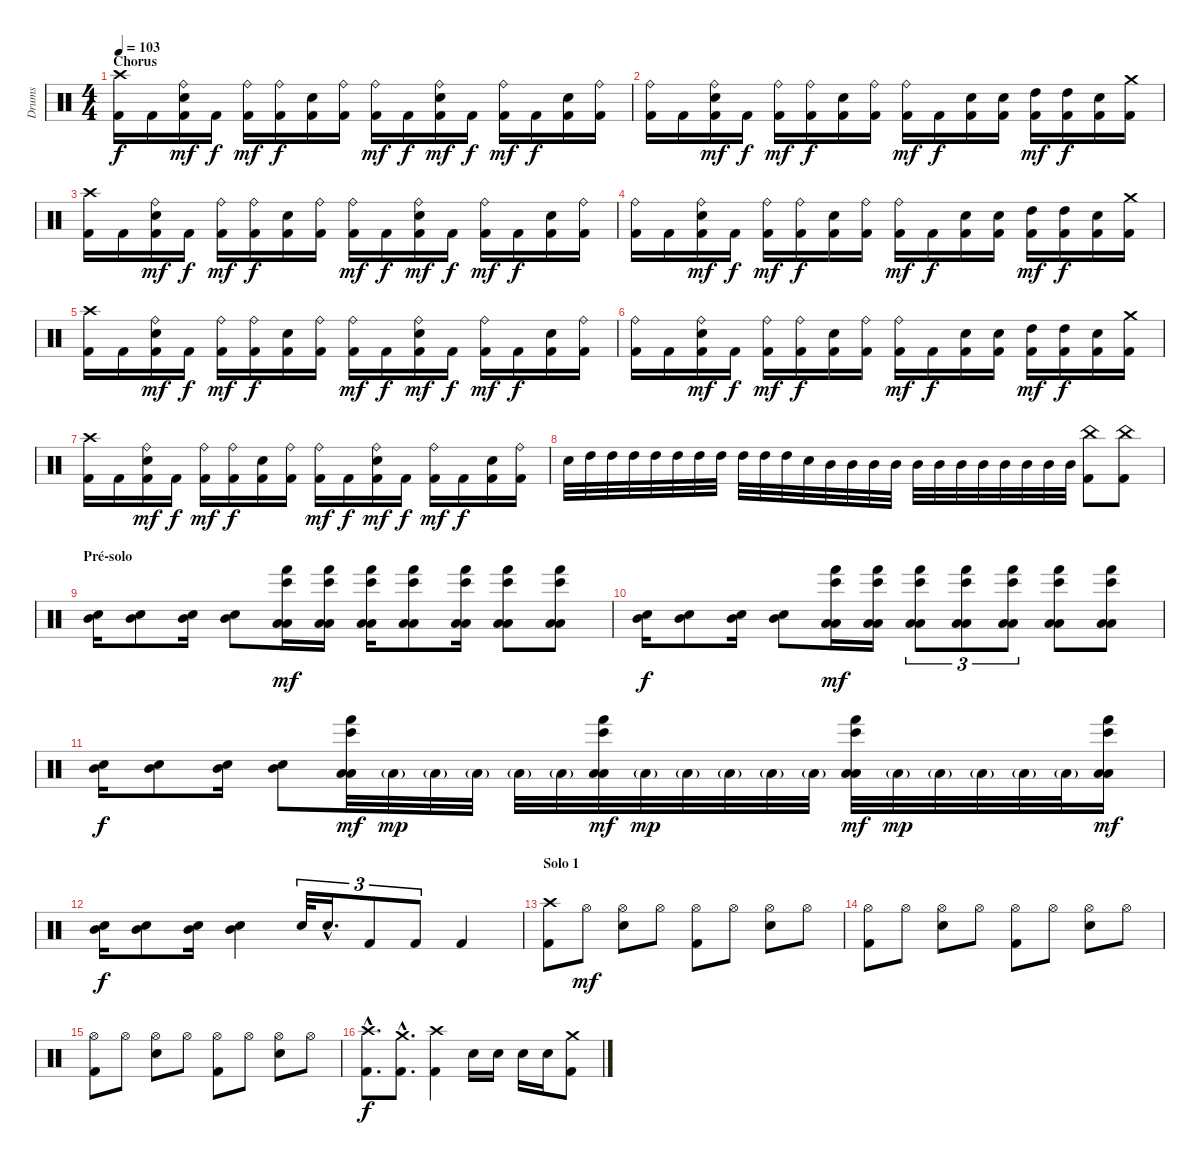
\track ("Drums" "Drums") {instrument percussion}
\staff {score}
\articulation defaults
\ts (4 4)
\section ("" "Chorus")
\tempo 103
\clef neutral
\ks c
("Crash high (hit)" "Kick (hit) 2").16{dy f} "Kick (hit) 2".16 ("Ride (bell)" "Electric Snare (hit)" "Kick (hit) 2").16{dy mf} "Kick (hit) 2".16{dy f} ("Ride (bell)" "Kick (hit) 2").16{dy mf} ("Ride (bell)" "Kick (hit) 2").16{dy f} ("Electric Snare (hit)" "Kick (hit) 2").16 ("Ride (bell)" "Kick (hit) 2").16 ("Ride (bell)" "Kick (hit) 2").16{dy mf} "Kick (hit) 2".16{dy f} ("Ride (bell)" "Electric Snare (hit)" "Kick (hit) 2").16{dy mf} "Kick (hit) 2".16{dy f} ("Ride (bell)" "Kick (hit) 2").16{dy mf} "Kick (hit) 2".16{dy f} ("Electric Snare (hit)" "Kick (hit) 2").16 ("Ride (bell)" "Kick (hit) 2").16 |
("Ride (bell)" "Kick (hit) 2").16 "Kick (hit) 2".16 ("Ride (bell)" "Electric Snare (hit)" "Kick (hit) 2").16{dy mf} "Kick (hit) 2".16{dy f} ("Ride (bell)" "Kick (hit) 2").16{dy mf} ("Ride (bell)" "Kick (hit) 2").16{dy f} ("Electric Snare (hit)" "Kick (hit) 2").16 ("Ride (bell)" "Kick (hit) 2").16 ("Ride (bell)" "Kick (hit) 2").16{dy mf} "Kick (hit) 2".16{dy f} ("Electric Snare (hit)" "Kick (hit) 2").16 ("Electric Snare (hit)" "Kick (hit) 2").16 ("High Tom (hit)" "Kick (hit) 2").16{dy mf} ("High Tom (hit)" "Kick (hit) 2").16{dy f} ("Electric Snare (hit)" "Kick (hit) 2").16 ("Crash medium (hit)" "Kick (hit) 2").16 |
("Crash high (hit)" "Kick (hit) 2").16 "Kick (hit) 2".16 ("Ride (bell)" "Electric Snare (hit)" "Kick (hit) 2").16{dy mf} "Kick (hit) 2".16{dy f} ("Ride (bell)" "Kick (hit) 2").16{dy mf} ("Ride (bell)" "Kick (hit) 2").16{dy f} ("Electric Snare (hit)" "Kick (hit) 2").16 ("Ride (bell)" "Kick (hit) 2").16 ("Ride (bell)" "Kick (hit) 2").16{dy mf} "Kick (hit) 2".16{dy f} ("Ride (bell)" "Electric Snare (hit)" "Kick (hit) 2").16{dy mf} "Kick (hit) 2".16{dy f} ("Ride (bell)" "Kick (hit) 2").16{dy mf} "Kick (hit) 2".16{dy f} ("Electric Snare (hit)" "Kick (hit) 2").16 ("Ride (bell)" "Kick (hit) 2").16 |
("Ride (bell)" "Kick (hit) 2").16 "Kick (hit) 2".16 ("Ride (bell)" "Electric Snare (hit)" "Kick (hit) 2").16{dy mf} "Kick (hit) 2".16{dy f} ("Ride (bell)" "Kick (hit) 2").16{dy mf} ("Ride (bell)" "Kick (hit) 2").16{dy f} ("Electric Snare (hit)" "Kick (hit) 2").16 ("Ride (bell)" "Kick (hit) 2").16 ("Ride (bell)" "Kick (hit) 2").16{dy mf} "Kick (hit) 2".16{dy f} ("Electric Snare (hit)" "Kick (hit) 2").16 ("Electric Snare (hit)" "Kick (hit) 2").16 ("High Tom (hit)" "Kick (hit) 2").16{dy mf} ("High Tom (hit)" "Kick (hit) 2").16{dy f} ("Electric Snare (hit)" "Kick (hit) 2").16 ("Crash medium (hit)" "Kick (hit) 2").16 |
("Crash high (hit)" "Kick (hit) 2").16 "Kick (hit) 2".16 ("Ride (bell)" "Electric Snare (hit)" "Kick (hit) 2").16{dy mf} "Kick (hit) 2".16{dy f} ("Ride (bell)" "Kick (hit) 2").16{dy mf} ("Ride (bell)" "Kick (hit) 2").16{dy f} ("Electric Snare (hit)" "Kick (hit) 2").16 ("Ride (bell)" "Kick (hit) 2").16 ("Ride (bell)" "Kick (hit) 2").16{dy mf} "Kick (hit) 2".16{dy f} ("Ride (bell)" "Electric Snare (hit)" "Kick (hit) 2").16{dy mf} "Kick (hit) 2".16{dy f} ("Ride (bell)" "Kick (hit) 2").16{dy mf} "Kick (hit) 2".16{dy f} ("Electric Snare (hit)" "Kick (hit) 2").16 ("Ride (bell)" "Kick (hit) 2").16 |
("Ride (bell)" "Kick (hit) 2").16 "Kick (hit) 2".16 ("Ride (bell)" "Electric Snare (hit)" "Kick (hit) 2").16{dy mf} "Kick (hit) 2".16{dy f} ("Ride (bell)" "Kick (hit) 2").16{dy mf} ("Ride (bell)" "Kick (hit) 2").16{dy f} ("Electric Snare (hit)" "Kick (hit) 2").16 ("Ride (bell)" "Kick (hit) 2").16 ("Ride (bell)" "Kick (hit) 2").16{dy mf} "Kick (hit) 2".16{dy f} ("Electric Snare (hit)" "Kick (hit) 2").16 ("Electric Snare (hit)" "Kick (hit) 2").16 ("High Tom (hit)" "Kick (hit) 2").16{dy mf} ("High Tom (hit)" "Kick (hit) 2").16{dy f} ("Electric Snare (hit)" "Kick (hit) 2").16 ("Crash medium (hit)" "Kick (hit) 2").16 |
("Crash high (hit)" "Kick (hit) 2").16 "Kick (hit) 2".16 ("Ride (bell)" "Electric Snare (hit)" "Kick (hit) 2").16{dy mf} "Kick (hit) 2".16{dy f} ("Ride (bell)" "Kick (hit) 2").16{dy mf} ("Ride (bell)" "Kick (hit) 2").16{dy f} ("Electric Snare (hit)" "Kick (hit) 2").16 ("Ride (bell)" "Kick (hit) 2").16 ("Ride (bell)" "Kick (hit) 2").16{dy mf} "Kick (hit) 2".16{dy f} ("Ride (bell)" "Electric Snare (hit)" "Kick (hit) 2").16{dy mf} "Kick (hit) 2".16{dy f} ("Ride (bell)" "Kick (hit) 2").16{dy mf} "Kick (hit) 2".16{dy f} ("Electric Snare (hit)" "Kick (hit) 2").16 ("Ride (bell)" "Kick (hit) 2").16 |
"Electric Snare (hit)".32 "High Tom (hit)".32 "High Tom (hit)".32 "High Tom (hit)".32 "High Tom (hit)".32 "High Tom (hit)".32 "High Tom (hit)".32 "High Tom (hit)".32 "High Tom (hit)".32 "High Tom (hit)".32 "High Tom (hit)".32 "Electric Snare (hit)".32 "Mid Tom (hit)".32 "Mid Tom (hit)".32 "Mid Tom (hit)".32 "Mid Tom (hit)".32 "Mid Tom (hit)".32 "Mid Tom (hit)".32 "Mid Tom (hit)".32 "Mid Tom (hit)".32 "Mid Tom (hit)".32 "Mid Tom (hit)".32 "Mid Tom (hit)".32 "Mid Tom (hit)".32 ("China (hit)" "Kick (hit) 2").8 ("China (hit)" "Kick (hit) 2").8 |
\section ("" "Pré-solo")
("Mid Tom (hit)" "Electric Snare (hit)").16 ("Mid Tom (hit)" "Electric Snare (hit)").8 ("Mid Tom (hit)" "Electric Snare (hit)").16 ("Mid Tom (hit)" "Electric Snare (hit)").8 ("Bongo High (hit)" "Low Tom (hit)" "Low Floor Tom (hit)" "Hand (hit)").16{dy mf} ("Bongo High (hit)" "Low Tom (hit)" "Low Floor Tom (hit)" "Hand (hit)").16 ("Bongo High (hit)" "Low Tom (hit)" "Low Floor Tom (hit)" "Hand (hit)").16 ("Bongo High (hit)" "Low Tom (hit)" "Low Floor Tom (hit)" "Hand (hit)").8 ("Bongo High (hit)" "Low Tom (hit)" "Low Floor Tom (hit)" "Hand (hit)").16 ("Bongo High (hit)" "Low Tom (hit)" "Low Floor Tom (hit)" "Hand (hit)").8 ("Bongo High (hit)" "Low Tom (hit)" "Low Floor Tom (hit)" "Hand (hit)").8 |
("Mid Tom (hit)" "Electric Snare (hit)").16{dy f} ("Mid Tom (hit)" "Electric Snare (hit)").8 ("Mid Tom (hit)" "Electric Snare (hit)").16 ("Mid Tom (hit)" "Electric Snare (hit)").8 ("Bongo High (hit)" "Low Tom (hit)" "Low Floor Tom (hit)" "Hand (hit)").16{dy mf} ("Bongo High (hit)" "Low Tom (hit)" "Low Floor Tom (hit)" "Hand (hit)").16 ("Bongo High (hit)" "Low Tom (hit)" "Low Floor Tom (hit)" "Hand (hit)").8{tu (3 2)} ("Bongo High (hit)" "Low Tom (hit)" "Low Floor Tom (hit)" "Hand (hit)").8{tu (3 2)} ("Bongo High (hit)" "Low Tom (hit)" "Low Floor Tom (hit)" "Hand (hit)").8{tu (3 2)} ("Bongo High (hit)" "Low Tom (hit)" "Low Floor Tom (hit)" "Hand (hit)").8 ("Bongo High (hit)" "Low Tom (hit)" "Low Floor Tom (hit)" "Hand (hit)").8 |
("Mid Tom (hit)" "Electric Snare (hit)").16{dy f} ("Mid Tom (hit)" "Electric Snare (hit)").8 ("Mid Tom (hit)" "Electric Snare (hit)").16 ("Mid Tom (hit)" "Electric Snare (hit)").8 ("Bongo High (hit)" "Low Tom (hit)" "Low Floor Tom (hit)" "Hand (hit)").32{dy mf} "Low Floor Tom (hit)"{g}.32{dy mp} "Low Floor Tom (hit)"{g}.32 "Low Floor Tom (hit)"{g}.32 "Low Floor Tom (hit)"{g}.32 "Low Floor Tom (hit)"{g}.32 ("Bongo High (hit)" "Low Tom (hit)" "Low Floor Tom (hit)" "Hand (hit)").32{dy mf} "Low Floor Tom (hit)"{g}.32{dy mp} "Low Floor Tom (hit)"{g}.32 "Low Floor Tom (hit)"{g}.32 "Low Floor Tom (hit)"{g}.32 "Low Floor Tom (hit)"{g}.32 ("Bongo High (hit)" "Low Tom (hit)" "Low Floor Tom (hit)" "Hand (hit)").32{dy mf} "Low Floor Tom (hit)"{g}.32{dy mp} "Low Floor Tom (hit)"{g}.32 "Low Floor Tom (hit)"{g}.32 "Low Floor Tom (hit)"{g}.32 "Low Floor Tom (hit)"{g}.32 ("Bongo High (hit)" "Low Tom (hit)" "Low Floor Tom (hit)" "Hand (hit)").16{dy mf} |
("Mid Tom (hit)" "Electric Snare (hit)").16{dy f} ("Mid Tom (hit)" "Electric Snare (hit)").8 ("Mid Tom (hit)" "Electric Snare (hit)").16 ("Mid Tom (hit)" "Electric Snare (hit)").4 "Electric Snare (hit)".32{tu (3 2)} "Electric Snare (hit)"{hac}.16{d tu (3 2)} "Kick (hit) 2".8{tu (3 2)} "Kick (hit) 2".8{tu (3 2)} "Kick (hit) 2".4 |
\section ("" "Solo 1")
("Crash high (hit)" "Kick (hit) 2").8 "Hi-Hat (open)".8{dy mf} ("Hi-Hat (open)" "Electric Snare (hit)").8 "Hi-Hat (open)".8 ("Hi-Hat (open)" "Kick (hit) 2").8 "Hi-Hat (open)".8 ("Hi-Hat (open)" "Electric Snare (hit)").8 "Hi-Hat (open)".8 |
("Hi-Hat (open)" "Kick (hit) 2").8 "Hi-Hat (open)".8 ("Hi-Hat (open)" "Electric Snare (hit)").8 "Hi-Hat (open)".8 ("Hi-Hat (open)" "Kick (hit) 2").8 "Hi-Hat (open)".8 ("Hi-Hat (open)" "Electric Snare (hit)").8 "Hi-Hat (open)".8 |
("Hi-Hat (open)" "Kick (hit) 2").8 "Hi-Hat (open)".8 ("Hi-Hat (open)" "Electric Snare (hit)").8 "Hi-Hat (open)".8 ("Hi-Hat (open)" "Kick (hit) 2").8 "Hi-Hat (open)".8 ("Hi-Hat (open)" "Electric Snare (hit)").8 "Hi-Hat (open)".8 |
("Crash high (hit)"{hac} "Kick (hit) 2"{hac}).8{d dy f} ("Crash medium (hit)"{hac} "Kick (hit) 2"{hac}).8{d} ("Crash high (hit)" "Kick (hit) 2").4 "Electric Snare (hit)".16 "Electric Snare (hit)".16 "Electric Snare (hit)".16 "Electric Snare (hit)".16 ("Crash medium (hit)" "Kick (hit) 2").8
